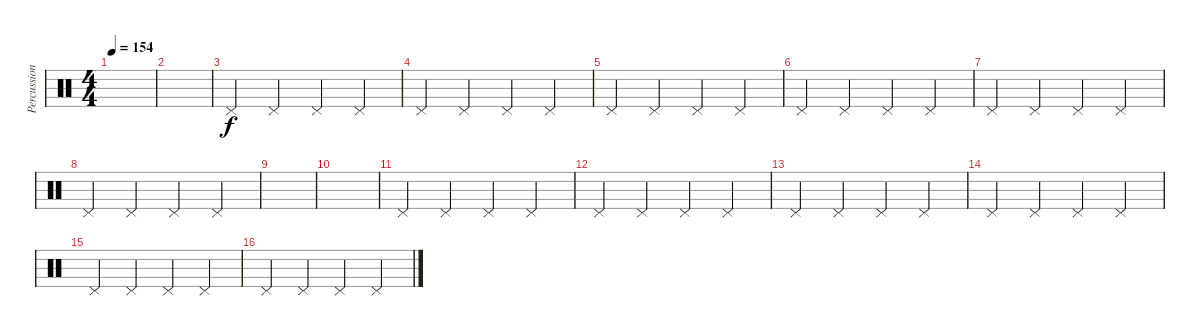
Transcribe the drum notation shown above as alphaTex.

\track ("Percussion" "Percussion") {instrument percussion}
\staff {score}
\articulation defaults
\ts (4 4)
\tempo 154
\clef neutral
\ks c
|
|
"Pedal Hi-Hat (hit)".4 "Pedal Hi-Hat (hit)".4 "Pedal Hi-Hat (hit)".4 "Pedal Hi-Hat (hit)".4 |
"Pedal Hi-Hat (hit)".4 "Pedal Hi-Hat (hit)".4 "Pedal Hi-Hat (hit)".4 "Pedal Hi-Hat (hit)".4 |
"Pedal Hi-Hat (hit)".4 "Pedal Hi-Hat (hit)".4 "Pedal Hi-Hat (hit)".4 "Pedal Hi-Hat (hit)".4 |
"Pedal Hi-Hat (hit)".4 "Pedal Hi-Hat (hit)".4 "Pedal Hi-Hat (hit)".4 "Pedal Hi-Hat (hit)".4 |
"Pedal Hi-Hat (hit)".4 "Pedal Hi-Hat (hit)".4 "Pedal Hi-Hat (hit)".4 "Pedal Hi-Hat (hit)".4 |
"Pedal Hi-Hat (hit)".4 "Pedal Hi-Hat (hit)".4 "Pedal Hi-Hat (hit)".4 "Pedal Hi-Hat (hit)".4 |
|
|
"Pedal Hi-Hat (hit)".4 "Pedal Hi-Hat (hit)".4 "Pedal Hi-Hat (hit)".4 "Pedal Hi-Hat (hit)".4 |
"Pedal Hi-Hat (hit)".4 "Pedal Hi-Hat (hit)".4 "Pedal Hi-Hat (hit)".4 "Pedal Hi-Hat (hit)".4 |
"Pedal Hi-Hat (hit)".4 "Pedal Hi-Hat (hit)".4 "Pedal Hi-Hat (hit)".4 "Pedal Hi-Hat (hit)".4 |
"Pedal Hi-Hat (hit)".4 "Pedal Hi-Hat (hit)".4 "Pedal Hi-Hat (hit)".4 "Pedal Hi-Hat (hit)".4 |
"Pedal Hi-Hat (hit)".4 "Pedal Hi-Hat (hit)".4 "Pedal Hi-Hat (hit)".4 "Pedal Hi-Hat (hit)".4 |
"Pedal Hi-Hat (hit)".4 "Pedal Hi-Hat (hit)".4 "Pedal Hi-Hat (hit)".4 "Pedal Hi-Hat (hit)".4
